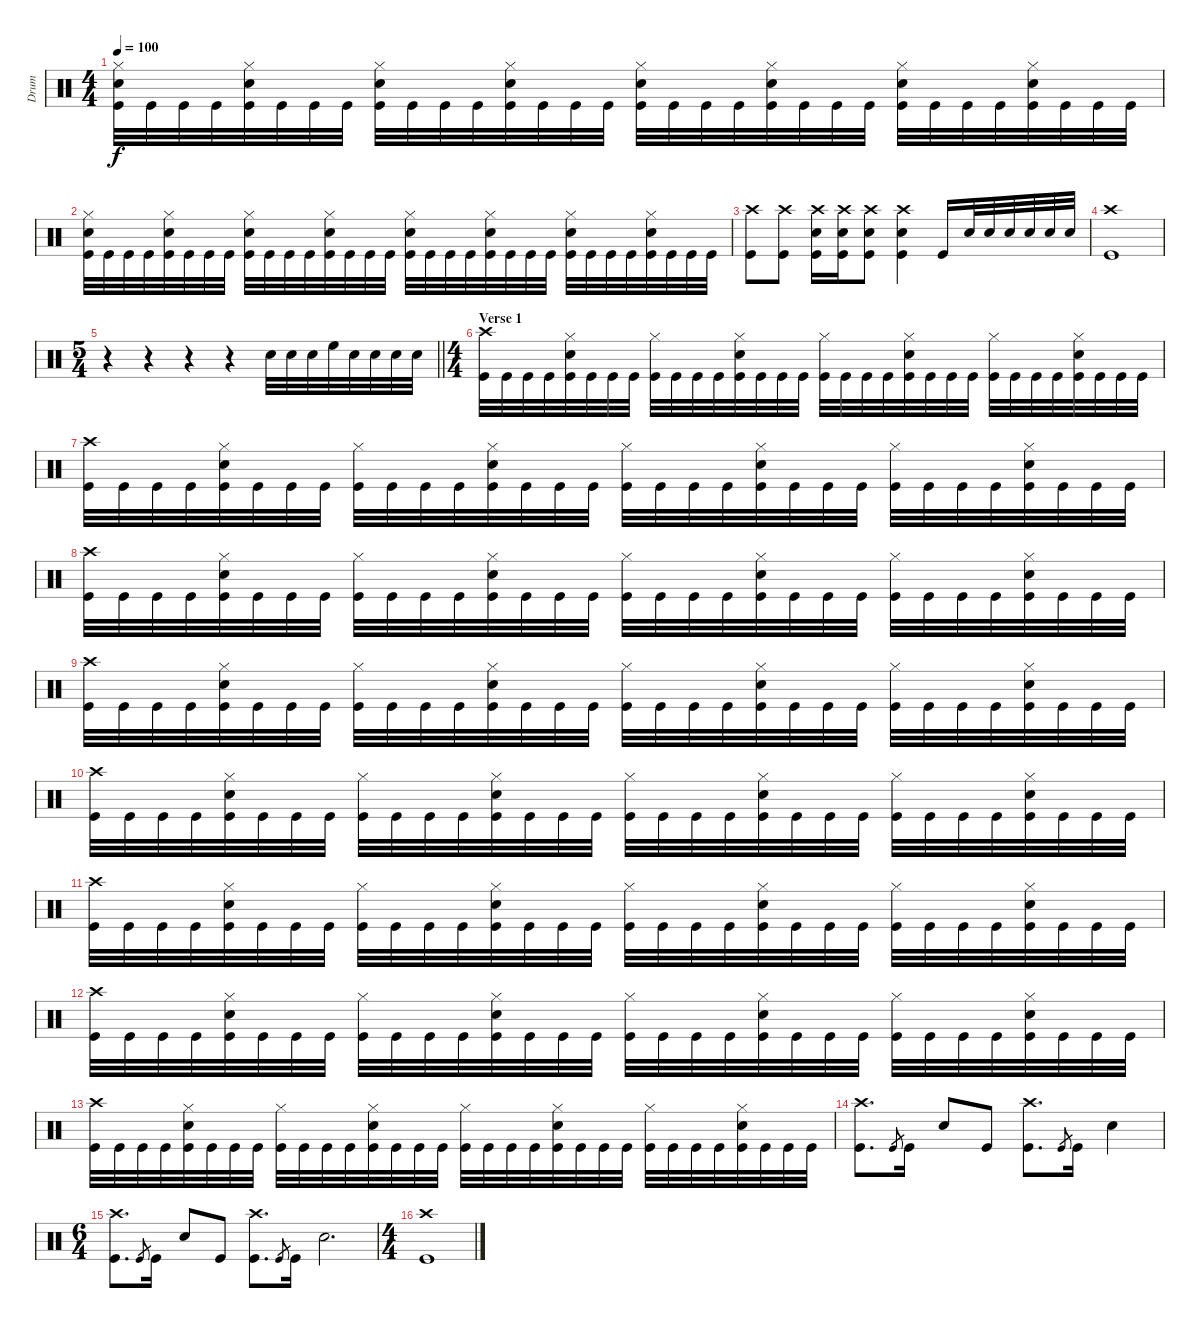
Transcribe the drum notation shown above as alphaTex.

\track ("Drum" "Drum") {instrument percussion}
\staff {score}
\articulation defaults
\ts (4 4)
\tempo 100
\clef neutral
\ks c
("Kick (hit)" "Snare (hit) 2" "Hi-Hat (closed)").32{dy f} "Kick (hit)".32 "Kick (hit)".32 "Kick (hit)".32 ("Kick (hit)" "Snare (hit) 2" "Hi-Hat (closed)").32 "Kick (hit)".32 "Kick (hit)".32 "Kick (hit)".32 ("Snare (hit) 2" "Kick (hit)" "Hi-Hat (closed)").32 "Kick (hit)".32 "Kick (hit)".32 "Kick (hit)".32 ("Kick (hit)" "Hi-Hat (closed)" "Snare (hit) 2").32 "Kick (hit)".32 "Kick (hit)".32 "Kick (hit)".32 ("Kick (hit)" "Snare (hit) 2" "Hi-Hat (closed)").32 "Kick (hit)".32 "Kick (hit)".32 "Kick (hit)".32 ("Snare (hit) 2" "Kick (hit)" "Hi-Hat (closed)").32 "Kick (hit)".32 "Kick (hit)".32 "Kick (hit)".32 ("Kick (hit)" "Snare (hit) 2" "Hi-Hat (closed)").32 "Kick (hit)".32 "Kick (hit)".32 "Kick (hit)".32 ("Kick (hit)" "Snare (hit) 2" "Hi-Hat (closed)").32 "Kick (hit)".32 "Kick (hit)".32 "Kick (hit)".32 |
("Kick (hit)" "Snare (hit) 2" "Hi-Hat (closed)").32 "Kick (hit)".32 "Kick (hit)".32 "Kick (hit)".32 ("Kick (hit)" "Snare (hit) 2" "Hi-Hat (closed)").32 "Kick (hit)".32 "Kick (hit)".32 "Kick (hit)".32 ("Snare (hit) 2" "Kick (hit)" "Hi-Hat (closed)").32 "Kick (hit)".32 "Kick (hit)".32 "Kick (hit)".32 ("Kick (hit)" "Hi-Hat (closed)" "Snare (hit) 2").32 "Kick (hit)".32 "Kick (hit)".32 "Kick (hit)".32 ("Kick (hit)" "Snare (hit) 2" "Hi-Hat (closed)").32 "Kick (hit)".32 "Kick (hit)".32 "Kick (hit)".32 ("Snare (hit) 2" "Kick (hit)" "Hi-Hat (closed)").32 "Kick (hit)".32 "Kick (hit)".32 "Kick (hit)".32 ("Kick (hit)" "Snare (hit) 2" "Hi-Hat (closed)").32 "Kick (hit)".32 "Kick (hit)".32 "Kick (hit)".32 ("Snare (hit) 2" "Kick (hit)" "Hi-Hat (closed)").32 "Kick (hit)".32 "Kick (hit)".32 "Kick (hit)".32 |
("Crash high (hit)" "Kick (hit)").8 ("Kick (hit)" "Crash high (hit)").8 ("Crash high (hit)" "Snare (hit) 2" "Kick (hit)").16 ("Crash high (hit)" "Snare (hit) 2" "Kick (hit)").16 ("Crash high (hit)" "Snare (hit) 2" "Kick (hit)").8 ("Kick (hit)" "Crash high (hit)" "Snare (hit) 2").4 "Kick (hit)".16 "Snare (hit) 2".32 "Snare (hit) 2".32 "Snare (hit) 2".32 "Snare (hit) 2".32 "Snare (hit) 2".32 "Snare (hit) 2".32 |
("Kick (hit)" "Crash high (hit)").1 |
\ts (5 4)
\barLineRight lightlight
r.4 r.4 r.4 r.4 "Snare (hit) 2".32 "Snare (hit) 2".32 "Snare (hit) 2".32 "High Floor Tom (hit)".32 "Snare (hit) 2".32 "Snare (hit) 2".32 "Snare (hit) 2".32 "Snare (hit) 2".32 |
\ts (4 4)
\section ("" "Verse 1")
("Kick (hit)" "Crash high (hit)").32 "Kick (hit)".32 "Kick (hit)".32 "Kick (hit)".32 ("Kick (hit)" "Snare (hit) 2" "Hi-Hat (closed)").32 "Kick (hit)".32 "Kick (hit)".32 "Kick (hit)".32 ("Kick (hit)" "Hi-Hat (closed)").32 "Kick (hit)".32 "Kick (hit)".32 "Kick (hit)".32 ("Kick (hit)" "Hi-Hat (closed)" "Snare (hit) 2").32 "Kick (hit)".32 "Kick (hit)".32 "Kick (hit)".32 ("Kick (hit)" "Hi-Hat (closed)").32 "Kick (hit)".32 "Kick (hit)".32 "Kick (hit)".32 ("Snare (hit) 2" "Kick (hit)" "Hi-Hat (closed)").32 "Kick (hit)".32 "Kick (hit)".32 "Kick (hit)".32 ("Kick (hit)" "Hi-Hat (closed)").32 "Kick (hit)".32 "Kick (hit)".32 "Kick (hit)".32 ("Kick (hit)" "Snare (hit) 2" "Hi-Hat (closed)").32 "Kick (hit)".32 "Kick (hit)".32 "Kick (hit)".32 |
("Kick (hit)" "Crash high (hit)").32 "Kick (hit)".32 "Kick (hit)".32 "Kick (hit)".32 ("Kick (hit)" "Snare (hit) 2" "Hi-Hat (closed)").32 "Kick (hit)".32 "Kick (hit)".32 "Kick (hit)".32 ("Kick (hit)" "Hi-Hat (closed)").32 "Kick (hit)".32 "Kick (hit)".32 "Kick (hit)".32 ("Kick (hit)" "Hi-Hat (closed)" "Snare (hit) 2").32 "Kick (hit)".32 "Kick (hit)".32 "Kick (hit)".32 ("Kick (hit)" "Hi-Hat (closed)").32 "Kick (hit)".32 "Kick (hit)".32 "Kick (hit)".32 ("Snare (hit) 2" "Kick (hit)" "Hi-Hat (closed)").32 "Kick (hit)".32 "Kick (hit)".32 "Kick (hit)".32 ("Kick (hit)" "Hi-Hat (closed)").32 "Kick (hit)".32 "Kick (hit)".32 "Kick (hit)".32 ("Kick (hit)" "Snare (hit) 2" "Hi-Hat (closed)").32 "Kick (hit)".32 "Kick (hit)".32 "Kick (hit)".32 |
("Kick (hit)" "Crash high (hit)").32 "Kick (hit)".32 "Kick (hit)".32 "Kick (hit)".32 ("Kick (hit)" "Snare (hit) 2" "Hi-Hat (closed)").32 "Kick (hit)".32 "Kick (hit)".32 "Kick (hit)".32 ("Kick (hit)" "Hi-Hat (closed)").32 "Kick (hit)".32 "Kick (hit)".32 "Kick (hit)".32 ("Kick (hit)" "Hi-Hat (closed)" "Snare (hit) 2").32 "Kick (hit)".32 "Kick (hit)".32 "Kick (hit)".32 ("Kick (hit)" "Hi-Hat (closed)").32 "Kick (hit)".32 "Kick (hit)".32 "Kick (hit)".32 ("Snare (hit) 2" "Kick (hit)" "Hi-Hat (closed)").32 "Kick (hit)".32 "Kick (hit)".32 "Kick (hit)".32 ("Kick (hit)" "Hi-Hat (closed)").32 "Kick (hit)".32 "Kick (hit)".32 "Kick (hit)".32 ("Kick (hit)" "Snare (hit) 2" "Hi-Hat (closed)").32 "Kick (hit)".32 "Kick (hit)".32 "Kick (hit)".32 |
("Kick (hit)" "Crash high (hit)").32 "Kick (hit)".32 "Kick (hit)".32 "Kick (hit)".32 ("Kick (hit)" "Snare (hit) 2" "Hi-Hat (closed)").32 "Kick (hit)".32 "Kick (hit)".32 "Kick (hit)".32 ("Kick (hit)" "Hi-Hat (closed)").32 "Kick (hit)".32 "Kick (hit)".32 "Kick (hit)".32 ("Kick (hit)" "Hi-Hat (closed)" "Snare (hit) 2").32 "Kick (hit)".32 "Kick (hit)".32 "Kick (hit)".32 ("Kick (hit)" "Hi-Hat (closed)").32 "Kick (hit)".32 "Kick (hit)".32 "Kick (hit)".32 ("Snare (hit) 2" "Kick (hit)" "Hi-Hat (closed)").32 "Kick (hit)".32 "Kick (hit)".32 "Kick (hit)".32 ("Kick (hit)" "Hi-Hat (closed)").32 "Kick (hit)".32 "Kick (hit)".32 "Kick (hit)".32 ("Kick (hit)" "Snare (hit) 2" "Hi-Hat (closed)").32 "Kick (hit)".32 "Kick (hit)".32 "Kick (hit)".32 |
("Kick (hit)" "Crash high (hit)").32 "Kick (hit)".32 "Kick (hit)".32 "Kick (hit)".32 ("Kick (hit)" "Snare (hit) 2" "Hi-Hat (closed)").32 "Kick (hit)".32 "Kick (hit)".32 "Kick (hit)".32 ("Kick (hit)" "Hi-Hat (closed)").32 "Kick (hit)".32 "Kick (hit)".32 "Kick (hit)".32 ("Kick (hit)" "Hi-Hat (closed)" "Snare (hit) 2").32 "Kick (hit)".32 "Kick (hit)".32 "Kick (hit)".32 ("Kick (hit)" "Hi-Hat (closed)").32 "Kick (hit)".32 "Kick (hit)".32 "Kick (hit)".32 ("Snare (hit) 2" "Kick (hit)" "Hi-Hat (closed)").32 "Kick (hit)".32 "Kick (hit)".32 "Kick (hit)".32 ("Kick (hit)" "Hi-Hat (closed)").32 "Kick (hit)".32 "Kick (hit)".32 "Kick (hit)".32 ("Kick (hit)" "Snare (hit) 2" "Hi-Hat (closed)").32 "Kick (hit)".32 "Kick (hit)".32 "Kick (hit)".32 |
("Kick (hit)" "Crash high (hit)").32 "Kick (hit)".32 "Kick (hit)".32 "Kick (hit)".32 ("Kick (hit)" "Snare (hit) 2" "Hi-Hat (closed)").32 "Kick (hit)".32 "Kick (hit)".32 "Kick (hit)".32 ("Kick (hit)" "Hi-Hat (closed)").32 "Kick (hit)".32 "Kick (hit)".32 "Kick (hit)".32 ("Kick (hit)" "Hi-Hat (closed)" "Snare (hit) 2").32 "Kick (hit)".32 "Kick (hit)".32 "Kick (hit)".32 ("Kick (hit)" "Hi-Hat (closed)").32 "Kick (hit)".32 "Kick (hit)".32 "Kick (hit)".32 ("Snare (hit) 2" "Kick (hit)" "Hi-Hat (closed)").32 "Kick (hit)".32 "Kick (hit)".32 "Kick (hit)".32 ("Kick (hit)" "Hi-Hat (closed)").32 "Kick (hit)".32 "Kick (hit)".32 "Kick (hit)".32 ("Kick (hit)" "Snare (hit) 2" "Hi-Hat (closed)").32 "Kick (hit)".32 "Kick (hit)".32 "Kick (hit)".32 |
("Kick (hit)" "Crash high (hit)").32 "Kick (hit)".32 "Kick (hit)".32 "Kick (hit)".32 ("Kick (hit)" "Snare (hit) 2" "Hi-Hat (closed)").32 "Kick (hit)".32 "Kick (hit)".32 "Kick (hit)".32 ("Kick (hit)" "Hi-Hat (closed)").32 "Kick (hit)".32 "Kick (hit)".32 "Kick (hit)".32 ("Kick (hit)" "Hi-Hat (closed)" "Snare (hit) 2").32 "Kick (hit)".32 "Kick (hit)".32 "Kick (hit)".32 ("Kick (hit)" "Hi-Hat (closed)").32 "Kick (hit)".32 "Kick (hit)".32 "Kick (hit)".32 ("Snare (hit) 2" "Kick (hit)" "Hi-Hat (closed)").32 "Kick (hit)".32 "Kick (hit)".32 "Kick (hit)".32 ("Kick (hit)" "Hi-Hat (closed)").32 "Kick (hit)".32 "Kick (hit)".32 "Kick (hit)".32 ("Kick (hit)" "Snare (hit) 2" "Hi-Hat (closed)").32 "Kick (hit)".32 "Kick (hit)".32 "Kick (hit)".32 |
("Kick (hit)" "Crash high (hit)").32 "Kick (hit)".32 "Kick (hit)".32 "Kick (hit)".32 ("Kick (hit)" "Snare (hit) 2" "Hi-Hat (closed)").32 "Kick (hit)".32 "Kick (hit)".32 "Kick (hit)".32 ("Kick (hit)" "Hi-Hat (closed)").32 "Kick (hit)".32 "Kick (hit)".32 "Kick (hit)".32 ("Kick (hit)" "Hi-Hat (closed)" "Snare (hit) 2").32 "Kick (hit)".32 "Kick (hit)".32 "Kick (hit)".32 ("Kick (hit)" "Hi-Hat (closed)").32 "Kick (hit)".32 "Kick (hit)".32 "Kick (hit)".32 ("Snare (hit) 2" "Kick (hit)" "Hi-Hat (closed)").32 "Kick (hit)".32 "Kick (hit)".32 "Kick (hit)".32 ("Kick (hit)" "Hi-Hat (closed)").32 "Kick (hit)".32 "Kick (hit)".32 "Kick (hit)".32 ("Kick (hit)" "Snare (hit) 2" "Hi-Hat (closed)").32 "Kick (hit)".32 "Kick (hit)".32 "Kick (hit)".32 |
("Crash high (hit)" "Kick (hit)").8{d} "Kick (hit)".8{gr} "Kick (hit)".16 "Snare (hit) 2".8 "Kick (hit)".8 ("Crash high (hit)" "Kick (hit)").8{d} "Kick (hit)".8{gr} "Kick (hit)".16 "Snare (hit) 2".4 |
\ts (6 4)
("Crash high (hit)" "Kick (hit)").8{d} "Kick (hit)".8{gr} "Kick (hit)".16 "Snare (hit) 2".8 "Kick (hit)".8 ("Crash high (hit)" "Kick (hit)").8{d} "Kick (hit)".8{gr} "Kick (hit)".16 "Snare (hit) 2".2{d} |
\ts (4 4)
("Kick (hit)" "Crash high (hit)").1
